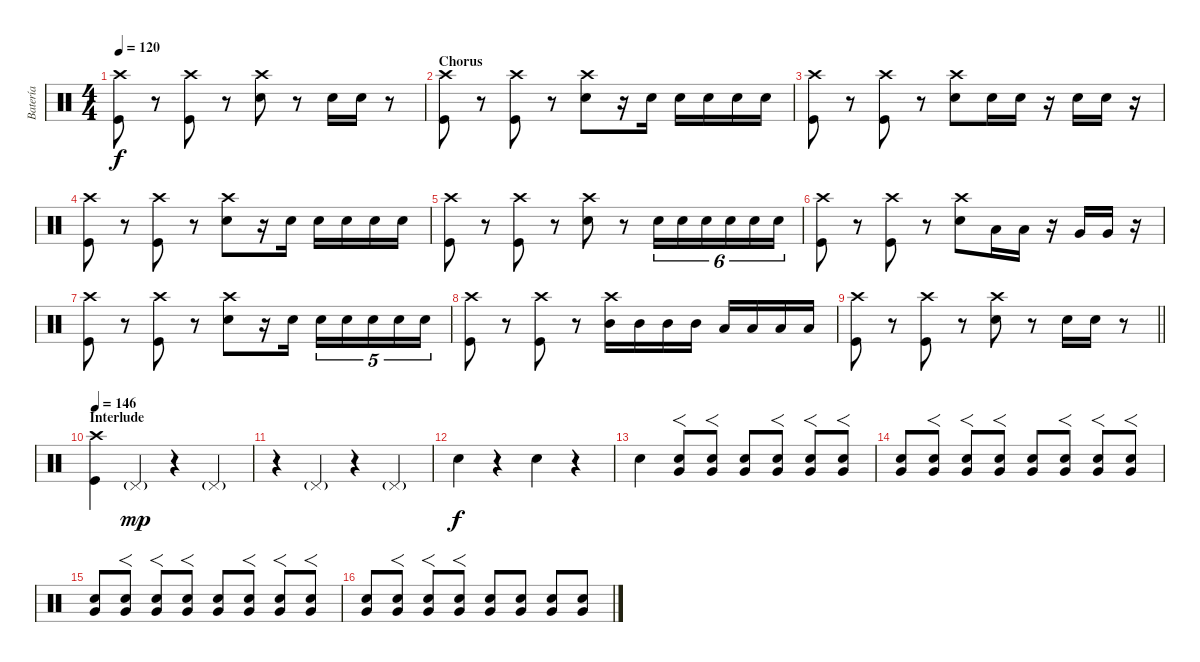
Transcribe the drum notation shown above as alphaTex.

\track ("Batería" "Batería") {instrument percussion}
\staff {score}
\articulation defaults
\ts (4 4)
\tempo 120
\clef neutral
\ks c
("Crash high (hit)" "Kick (hit)").8{dy f} r.8 ("Crash high (hit)" "Kick (hit)").8 r.8 ("Crash high (hit)" "Electric Snare (hit)").8 r.8 "Electric Snare (hit)".16 "Electric Snare (hit)".16 r.8 |
\section ("" "Chorus")
("Crash high (hit)" "Kick (hit)").8 r.8 ("Crash high (hit)" "Kick (hit)").8 r.8 ("Crash high (hit)" "Electric Snare (hit)").8 r.16 "Electric Snare (hit)".16 "Electric Snare (hit)".16 "Electric Snare (hit)".16 "Electric Snare (hit)".16 "Electric Snare (hit)".16 |
("Crash high (hit)" "Kick (hit)").8 r.8 ("Crash high (hit)" "Kick (hit)").8 r.8 ("Crash high (hit)" "Electric Snare (hit)").8 "Electric Snare (hit)".16 "Electric Snare (hit)".16 r.16 "Electric Snare (hit)".16 "Electric Snare (hit)".16 r.16 |
("Crash high (hit)" "Kick (hit)").8 r.8 ("Crash high (hit)" "Kick (hit)").8 r.8 ("Crash high (hit)" "Electric Snare (hit)").8 r.16 "Electric Snare (hit)".16 "Electric Snare (hit)".16 "Electric Snare (hit)".16 "Electric Snare (hit)".16 "Electric Snare (hit)".16 |
("Crash high (hit)" "Kick (hit)").8 r.8 ("Crash high (hit)" "Kick (hit)").8 r.8 ("Crash high (hit)" "Electric Snare (hit)").8 r.8 "Electric Snare (hit)".16{tu (6 4)} "Electric Snare (hit)".16{tu (6 4)} "Electric Snare (hit)".16{tu (6 4)} "Electric Snare (hit)".16{tu (6 4)} "Electric Snare (hit)".16{tu (6 4)} "Electric Snare (hit)".16{tu (6 4)} |
("Crash high (hit)" "Kick (hit)").8 r.8 ("Crash high (hit)" "Kick (hit)").8 r.8 ("Crash high (hit)" "Snare (hit) 2").8 "Low Tom (hit)".16 "Low Tom (hit)".16 r.16 "Very Low Tom (hit)".16 "Very Low Tom (hit)".16 r.16 |
("Crash high (hit)" "Kick (hit)").8 r.8 ("Crash high (hit)" "Kick (hit)").8 r.8 ("Crash high (hit)" "Electric Snare (hit)").8 r.16 "Electric Snare (hit)".16 "Electric Snare (hit)".16{tu (5 4)} "Electric Snare (hit)".16{tu (5 4)} "Electric Snare (hit)".16{tu (5 4)} "Electric Snare (hit)".16{tu (5 4)} "Electric Snare (hit)".16{tu (5 4)} |
("Crash high (hit)" "Kick (hit)").8 r.8 ("Crash high (hit)" "Kick (hit)").8 r.8 ("Crash high (hit)" "Mid Tom (hit)").16 "Mid Tom (hit)".16 "Mid Tom (hit)".16 "Mid Tom (hit)".16 "Low Tom (hit)".16 "Low Tom (hit)".16 "Low Tom (hit)".16 "Low Tom (hit)".16 |
\barLineRight lightlight
("Crash high (hit)" "Kick (hit)").8 r.8 ("Crash high (hit)" "Kick (hit)").8 r.8 ("Crash high (hit)" "Electric Snare (hit)").8 r.8 "Electric Snare (hit)".16 "Electric Snare (hit)".16 r.8 |
\section ("" "Interlude")
\tempo 146
("Crash high (hit)" "Kick (hit)").4 "Pedal Hi-Hat (hit)"{g}.4{dy mp} r.4 "Pedal Hi-Hat (hit)"{g}.4 |
r.4 "Pedal Hi-Hat (hit)"{g}.4 r.4 "Pedal Hi-Hat (hit)"{g}.4 |
"Electric Snare (hit)".4{dy f} r.4 "Electric Snare (hit)".4 r.4 |
"Electric Snare (hit)".4{volume 6} ("Very Low Tom (hit)" "Electric Snare (hit)").8{f volume 10} ("Very Low Tom (hit)" "Electric Snare (hit)").8{f} ("Very Low Tom (hit)" "Electric Snare (hit)").8{volume 12} ("Very Low Tom (hit)" "Electric Snare (hit)").8{f volume 6} ("Very Low Tom (hit)" "Electric Snare (hit)").8{f volume 12} ("Very Low Tom (hit)" "Electric Snare (hit)").8{f} |
("Very Low Tom (hit)" "Electric Snare (hit)").8{volume 12} ("Very Low Tom (hit)" "Electric Snare (hit)").8{f} ("Very Low Tom (hit)" "Electric Snare (hit)").8{f} ("Very Low Tom (hit)" "Electric Snare (hit)").8{f} ("Very Low Tom (hit)" "Electric Snare (hit)").8 ("Very Low Tom (hit)" "Electric Snare (hit)").8{f} ("Very Low Tom (hit)" "Electric Snare (hit)").8{f} ("Very Low Tom (hit)" "Electric Snare (hit)").8{f} |
("Very Low Tom (hit)" "Electric Snare (hit)").8 ("Very Low Tom (hit)" "Electric Snare (hit)").8{f} ("Very Low Tom (hit)" "Electric Snare (hit)").8{f} ("Very Low Tom (hit)" "Electric Snare (hit)").8{f} ("Very Low Tom (hit)" "Electric Snare (hit)").8 ("Very Low Tom (hit)" "Electric Snare (hit)").8{f} ("Very Low Tom (hit)" "Electric Snare (hit)").8{f} ("Very Low Tom (hit)" "Electric Snare (hit)").8{f} |
("Very Low Tom (hit)" "Electric Snare (hit)").8 ("Very Low Tom (hit)" "Electric Snare (hit)").8{f} ("Very Low Tom (hit)" "Electric Snare (hit)").8{f} ("Very Low Tom (hit)" "Electric Snare (hit)").8{f} ("Very Low Tom (hit)" "Electric Snare (hit)").8 ("Very Low Tom (hit)" "Electric Snare (hit)").8 ("Very Low Tom (hit)" "Electric Snare (hit)").8 ("Very Low Tom (hit)" "Electric Snare (hit)").8
